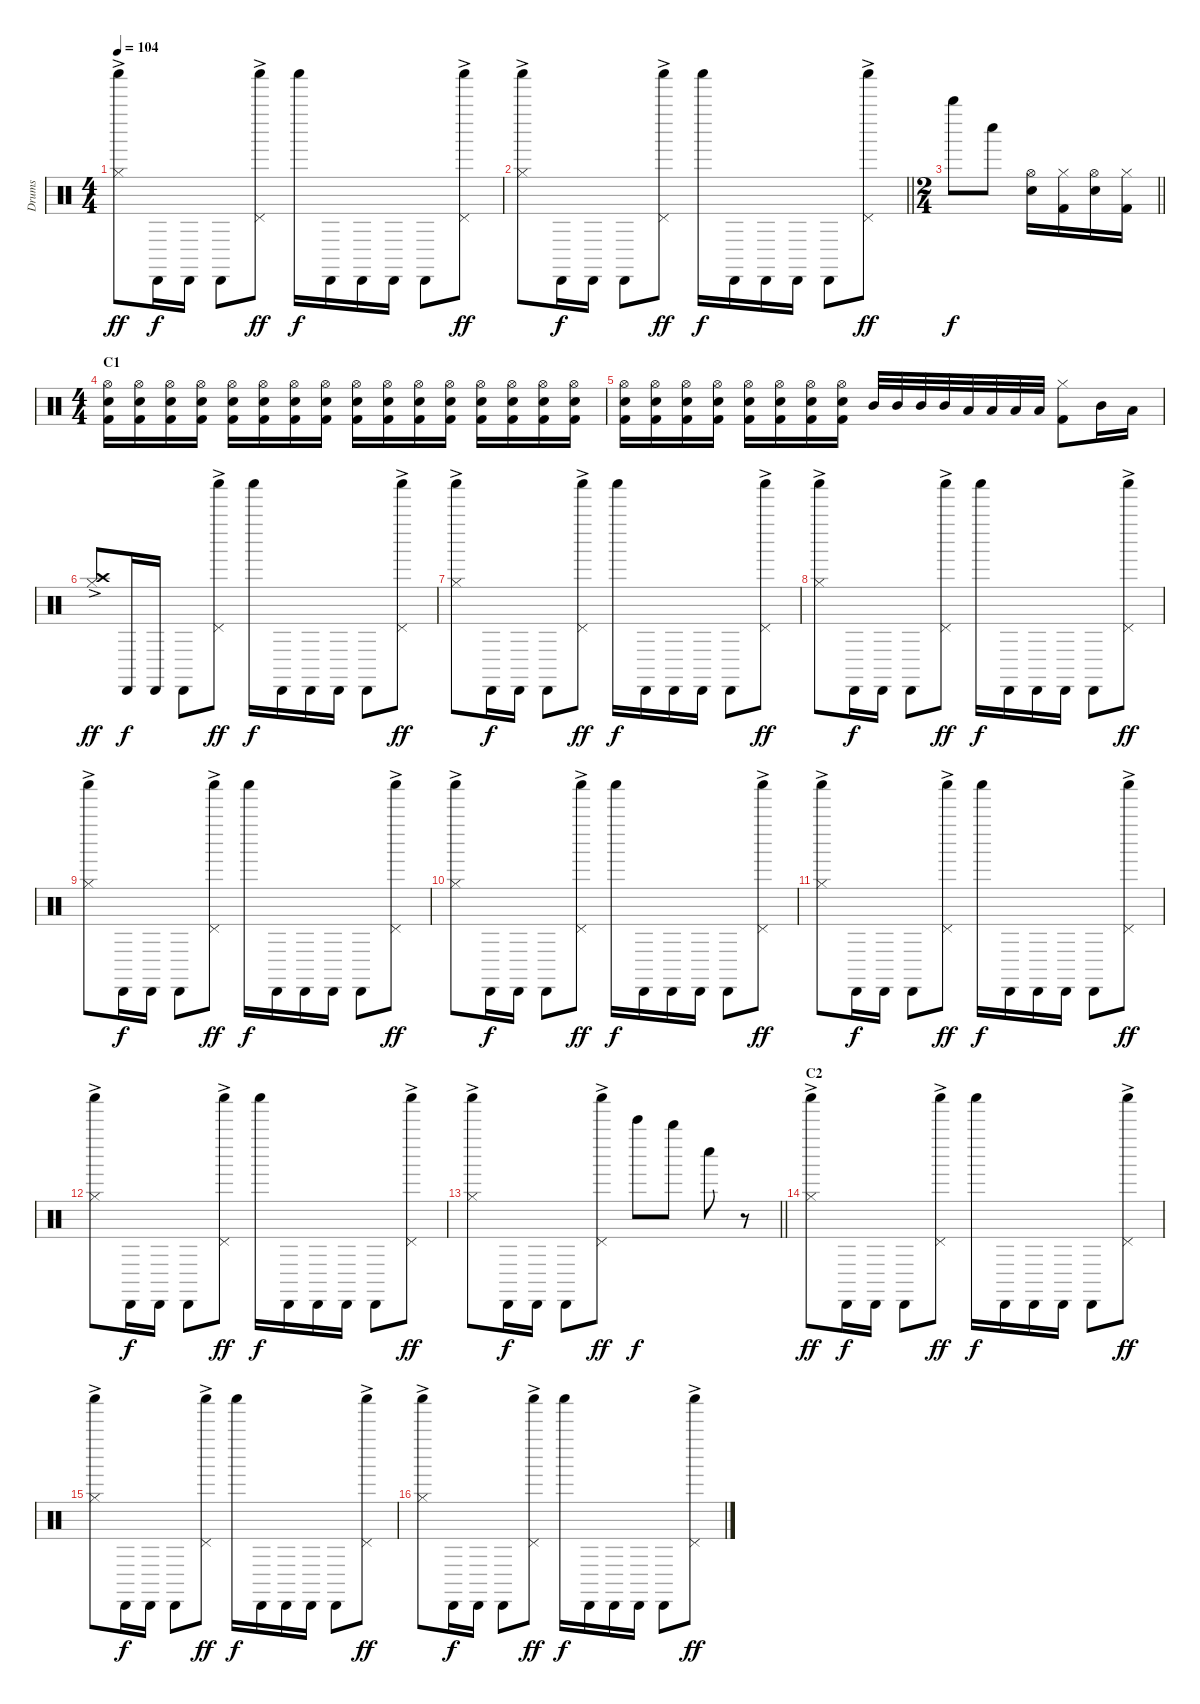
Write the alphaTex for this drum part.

\track ("Drums" "Drums") {instrument percussion}
\staff {score}
\articulation defaults
\ts (4 4)
\tempo 104
\clef neutral
\ks c
("Shaker (hit)" "Hi-Hat (closed)"{ac}).8{dy ff} "Cabasa (hit)".16{dy f} "Cabasa (hit)".16 "Cabasa (hit)".8 ("Shaker (hit)" "Pedal Hi-Hat (hit)"{ac}).8{dy ff} "Shaker (hit)".16{dy f} "Cabasa (hit)".16 "Cabasa (hit)".16 "Cabasa (hit)".16 "Cabasa (hit)".8 ("Shaker (hit)" "Pedal Hi-Hat (hit)"{ac}).8{dy ff} |
\barLineRight lightlight
("Shaker (hit)" "Hi-Hat (closed)"{ac}).8 "Cabasa (hit)".16{dy f} "Cabasa (hit)".16 "Cabasa (hit)".8 ("Shaker (hit)" "Pedal Hi-Hat (hit)"{ac}).8{dy ff} "Shaker (hit)".16{dy f} "Cabasa (hit)".16 "Cabasa (hit)".16 "Cabasa (hit)".16 "Cabasa (hit)".8 ("Shaker (hit)" "Pedal Hi-Hat (hit)"{ac}).8{dy ff} |
\ts (2 4)
\barLineRight lightlight "Whistle high (hit)".8{dy f} "Whistle low (hit)".8
("Hi-Hat (open)" "Electric Snare (hit)").16 ("Hi-Hat (closed)" "Kick (hit) 2").16 ("Hi-Hat (open)" "Electric Snare (hit)").16 ("Hi-Hat (closed)" "Kick (hit) 2").16 |
\ts (4 4)
\section ("" "C1")
("Hi-Hat (open)" "Electric Snare (hit)" "Kick (hit) 2").16 ("Hi-Hat (open)" "Electric Snare (hit)" "Kick (hit) 2").16 ("Hi-Hat (open)" "Electric Snare (hit)" "Kick (hit) 2").16 ("Hi-Hat (open)" "Electric Snare (hit)" "Kick (hit) 2").16 ("Hi-Hat (open)" "Electric Snare (hit)" "Kick (hit) 2").16 ("Hi-Hat (open)" "Electric Snare (hit)" "Kick (hit) 2").16 ("Hi-Hat (open)" "Electric Snare (hit)" "Kick (hit) 2").16 ("Hi-Hat (open)" "Electric Snare (hit)" "Kick (hit) 2").16 ("Hi-Hat (open)" "Electric Snare (hit)" "Kick (hit) 2").16 ("Hi-Hat (open)" "Electric Snare (hit)" "Kick (hit) 2").16 ("Hi-Hat (open)" "Electric Snare (hit)" "Kick (hit) 2").16 ("Hi-Hat (open)" "Electric Snare (hit)" "Kick (hit) 2").16 ("Hi-Hat (open)" "Electric Snare (hit)" "Kick (hit) 2").16 ("Hi-Hat (open)" "Electric Snare (hit)" "Kick (hit) 2").16 ("Hi-Hat (open)" "Electric Snare (hit)" "Kick (hit) 2").16 ("Hi-Hat (open)" "Electric Snare (hit)" "Kick (hit) 2").16 |
("Hi-Hat (open)" "Electric Snare (hit)" "Kick (hit) 2").16 ("Hi-Hat (open)" "Electric Snare (hit)" "Kick (hit) 2").16 ("Hi-Hat (open)" "Electric Snare (hit)" "Kick (hit) 2").16 ("Hi-Hat (open)" "Electric Snare (hit)" "Kick (hit) 2").16 ("Hi-Hat (open)" "Electric Snare (hit)" "Kick (hit) 2").16 ("Hi-Hat (open)" "Electric Snare (hit)" "Kick (hit) 2").16 ("Hi-Hat (open)" "Electric Snare (hit)" "Kick (hit) 2").16 ("Hi-Hat (open)" "Electric Snare (hit)" "Kick (hit) 2").16 "Mid Tom (hit)".32 "Mid Tom (hit)".32 "Mid Tom (hit)".32 "Mid Tom (hit)".32 "Low Tom (hit)".32 "Low Tom (hit)".32 "Low Tom (hit)".32 "Low Tom (hit)".32 ("Hi-Hat (closed)" "Kick (hit) 2").8 "Mid Tom (hit)".16 "Low Tom (hit)".16 |
("Crash high (hit)" "Hi-Hat (closed)"{ac}).8{dy ff} "Cabasa (hit)".16{dy f} "Cabasa (hit)".16 "Cabasa (hit)".8 ("Shaker (hit)" "Pedal Hi-Hat (hit)"{ac}).8{dy ff} "Shaker (hit)".16{dy f} "Cabasa (hit)".16 "Cabasa (hit)".16 "Cabasa (hit)".16 "Cabasa (hit)".8 ("Shaker (hit)" "Pedal Hi-Hat (hit)"{ac}).8{dy ff} |
("Shaker (hit)" "Hi-Hat (closed)"{ac}).8 "Cabasa (hit)".16{dy f} "Cabasa (hit)".16 "Cabasa (hit)".8 ("Shaker (hit)" "Pedal Hi-Hat (hit)"{ac}).8{dy ff} "Shaker (hit)".16{dy f} "Cabasa (hit)".16 "Cabasa (hit)".16 "Cabasa (hit)".16 "Cabasa (hit)".8 ("Shaker (hit)" "Pedal Hi-Hat (hit)"{ac}).8{dy ff} |
("Shaker (hit)" "Hi-Hat (closed)"{ac}).8 "Cabasa (hit)".16{dy f} "Cabasa (hit)".16 "Cabasa (hit)".8 ("Shaker (hit)" "Pedal Hi-Hat (hit)"{ac}).8{dy ff} "Shaker (hit)".16{dy f} "Cabasa (hit)".16 "Cabasa (hit)".16 "Cabasa (hit)".16 "Cabasa (hit)".8 ("Shaker (hit)" "Pedal Hi-Hat (hit)"{ac}).8{dy ff} |
("Shaker (hit)" "Hi-Hat (closed)"{ac}).8 "Cabasa (hit)".16{dy f} "Cabasa (hit)".16 "Cabasa (hit)".8 ("Shaker (hit)" "Pedal Hi-Hat (hit)"{ac}).8{dy ff} "Shaker (hit)".16{dy f} "Cabasa (hit)".16 "Cabasa (hit)".16 "Cabasa (hit)".16 "Cabasa (hit)".8 ("Shaker (hit)" "Pedal Hi-Hat (hit)"{ac}).8{dy ff} |
("Shaker (hit)" "Hi-Hat (closed)"{ac}).8 "Cabasa (hit)".16{dy f} "Cabasa (hit)".16 "Cabasa (hit)".8 ("Shaker (hit)" "Pedal Hi-Hat (hit)"{ac}).8{dy ff} "Shaker (hit)".16{dy f} "Cabasa (hit)".16 "Cabasa (hit)".16 "Cabasa (hit)".16 "Cabasa (hit)".8 ("Shaker (hit)" "Pedal Hi-Hat (hit)"{ac}).8{dy ff} |
("Shaker (hit)" "Hi-Hat (closed)"{ac}).8 "Cabasa (hit)".16{dy f} "Cabasa (hit)".16 "Cabasa (hit)".8 ("Shaker (hit)" "Pedal Hi-Hat (hit)"{ac}).8{dy ff} "Shaker (hit)".16{dy f} "Cabasa (hit)".16 "Cabasa (hit)".16 "Cabasa (hit)".16 "Cabasa (hit)".8 ("Shaker (hit)" "Pedal Hi-Hat (hit)"{ac}).8{dy ff} |
("Shaker (hit)" "Hi-Hat (closed)"{ac}).8 "Cabasa (hit)".16{dy f} "Cabasa (hit)".16 "Cabasa (hit)".8 ("Shaker (hit)" "Pedal Hi-Hat (hit)"{ac}).8{dy ff} "Shaker (hit)".16{dy f} "Cabasa (hit)".16 "Cabasa (hit)".16 "Cabasa (hit)".16 "Cabasa (hit)".8 ("Shaker (hit)" "Pedal Hi-Hat (hit)"{ac}).8{dy ff} |
\barLineRight lightlight
("Shaker (hit)" "Hi-Hat (closed)"{ac}).8 "Cabasa (hit)".16{dy f} "Cabasa (hit)".16 "Cabasa (hit)".8 ("Shaker (hit)" "Pedal Hi-Hat (hit)"{ac}).8{dy ff} "Bell Tree (hit)".8{dy f} "Whistle high (hit)".8 "Whistle low (hit)".8 r.8 |
\section ("" "C2")
("Shaker (hit)" "Hi-Hat (closed)"{ac}).8{dy ff} "Cabasa (hit)".16{dy f} "Cabasa (hit)".16 "Cabasa (hit)".8 ("Shaker (hit)" "Pedal Hi-Hat (hit)"{ac}).8{dy ff} "Shaker (hit)".16{dy f} "Cabasa (hit)".16 "Cabasa (hit)".16 "Cabasa (hit)".16 "Cabasa (hit)".8 ("Shaker (hit)" "Pedal Hi-Hat (hit)"{ac}).8{dy ff} |
("Shaker (hit)" "Hi-Hat (closed)"{ac}).8 "Cabasa (hit)".16{dy f} "Cabasa (hit)".16 "Cabasa (hit)".8 ("Shaker (hit)" "Pedal Hi-Hat (hit)"{ac}).8{dy ff} "Shaker (hit)".16{dy f} "Cabasa (hit)".16 "Cabasa (hit)".16 "Cabasa (hit)".16 "Cabasa (hit)".8 ("Shaker (hit)" "Pedal Hi-Hat (hit)"{ac}).8{dy ff} |
("Shaker (hit)" "Hi-Hat (closed)"{ac}).8 "Cabasa (hit)".16{dy f} "Cabasa (hit)".16 "Cabasa (hit)".8 ("Shaker (hit)" "Pedal Hi-Hat (hit)"{ac}).8{dy ff} "Shaker (hit)".16{dy f} "Cabasa (hit)".16 "Cabasa (hit)".16 "Cabasa (hit)".16 "Cabasa (hit)".8 ("Shaker (hit)" "Pedal Hi-Hat (hit)"{ac}).8{dy ff}
